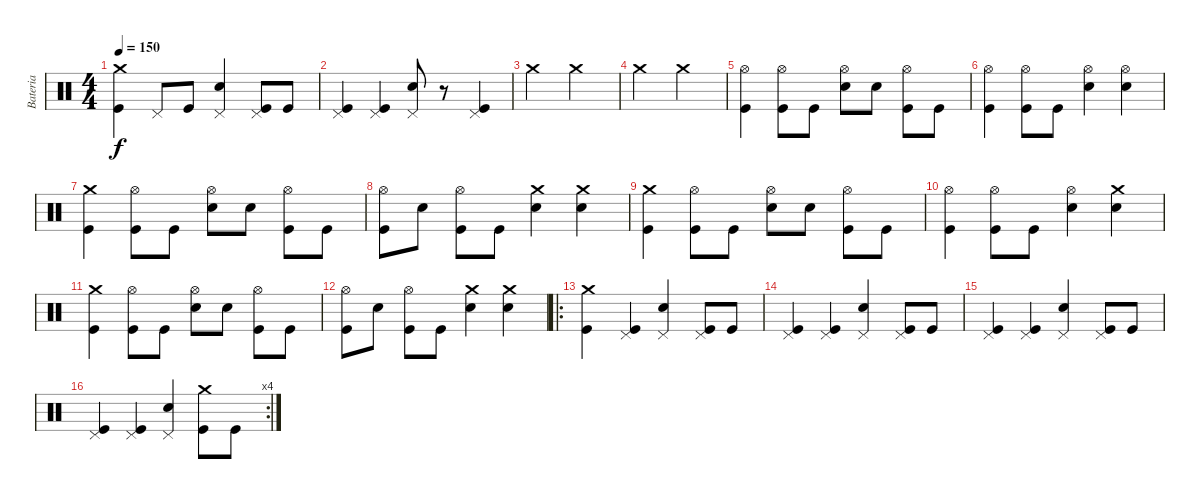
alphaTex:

\track ("Bateria" "Bateria") {instrument percussion}
\staff {score}
\articulation defaults
\ts (4 4)
\tempo 150
\clef neutral
\ks c
("Crash medium (hit)" "Kick (hit)").4{dy f} "Pedal Hi-Hat (hit)".8 "Kick (hit)".8 ("Pedal Hi-Hat (hit)" "Snare (hit) 2").4 ("Pedal Hi-Hat (hit)" "Kick (hit)").8 "Kick (hit)".8 |
("Pedal Hi-Hat (hit)" "Kick (hit)").4 ("Pedal Hi-Hat (hit)" "Kick (hit)").4 ("Pedal Hi-Hat (hit)" "Snare (hit) 2").8 r.8 ("Pedal Hi-Hat (hit)" "Kick (hit)").4 |
"Crash medium (hit)".2 "Crash medium (hit)".2 |
"Crash medium (hit)".2 "Crash medium (hit)".2 |
("Hi-Hat (open)" "Kick (hit)").4 ("Hi-Hat (open)" "Kick (hit)").8 "Kick (hit)".8 ("Hi-Hat (open)" "Snare (hit) 2").8 "Snare (hit) 2".8 ("Hi-Hat (open)" "Kick (hit)").8 "Kick (hit)".8 |
("Hi-Hat (open)" "Kick (hit)").4 ("Hi-Hat (open)" "Kick (hit)").8 "Kick (hit)".8 ("Hi-Hat (open)" "Snare (hit) 2").4 ("Hi-Hat (open)" "Snare (hit) 2").4 |
("Crash medium (hit)" "Kick (hit)").4 ("Hi-Hat (open)" "Kick (hit)").8 "Kick (hit)".8 ("Hi-Hat (open)" "Snare (hit) 2").8 "Snare (hit) 2".8 ("Hi-Hat (open)" "Kick (hit)").8 "Kick (hit)".8 |
("Hi-Hat (open)" "Kick (hit)").8 "Snare (hit) 2".8 ("Hi-Hat (open)" "Kick (hit)").8 "Kick (hit)".8 ("Crash medium (hit)" "Snare (hit) 2").4 ("Crash medium (hit)" "Snare (hit) 2").4 |
("Crash medium (hit)" "Kick (hit)").4 ("Hi-Hat (open)" "Kick (hit)").8 "Kick (hit)".8 ("Hi-Hat (open)" "Snare (hit) 2").8 "Snare (hit) 2".8 ("Hi-Hat (open)" "Kick (hit)").8 "Kick (hit)".8 |
("Hi-Hat (open)" "Kick (hit)").4 ("Hi-Hat (open)" "Kick (hit)").8 "Kick (hit)".8 ("Hi-Hat (open)" "Snare (hit) 2").4 ("Crash medium (hit)" "Snare (hit) 2").4 |
("Crash medium (hit)" "Kick (hit)").4 ("Hi-Hat (open)" "Kick (hit)").8 "Kick (hit)".8 ("Hi-Hat (open)" "Snare (hit) 2").8 "Snare (hit) 2".8 ("Hi-Hat (open)" "Kick (hit)").8 "Kick (hit)".8 |
("Hi-Hat (open)" "Kick (hit)").8 "Snare (hit) 2".8 ("Hi-Hat (open)" "Kick (hit)").8 "Kick (hit)".8 ("Crash medium (hit)" "Snare (hit) 2").4 ("Crash medium (hit)" "Snare (hit) 2").4 |
\ro
("Crash medium (hit)" "Kick (hit)").4 ("Pedal Hi-Hat (hit)" "Kick (hit)").4 ("Pedal Hi-Hat (hit)" "Snare (hit) 2").4 ("Pedal Hi-Hat (hit)" "Kick (hit)").8 "Kick (hit)".8 |
("Pedal Hi-Hat (hit)" "Kick (hit)").4 ("Pedal Hi-Hat (hit)" "Kick (hit)").4 ("Pedal Hi-Hat (hit)" "Snare (hit) 2").4 ("Pedal Hi-Hat (hit)" "Kick (hit)").8 "Kick (hit)".8 |
("Pedal Hi-Hat (hit)" "Kick (hit)").4 ("Pedal Hi-Hat (hit)" "Kick (hit)").4 ("Pedal Hi-Hat (hit)" "Snare (hit) 2").4 ("Pedal Hi-Hat (hit)" "Kick (hit)").8 "Kick (hit)".8 |
\rc 4
("Pedal Hi-Hat (hit)" "Kick (hit)").4 ("Pedal Hi-Hat (hit)" "Kick (hit)").4 ("Pedal Hi-Hat (hit)" "Snare (hit) 2").4 ("Crash medium (hit)" "Kick (hit)").8 "Kick (hit)".8
